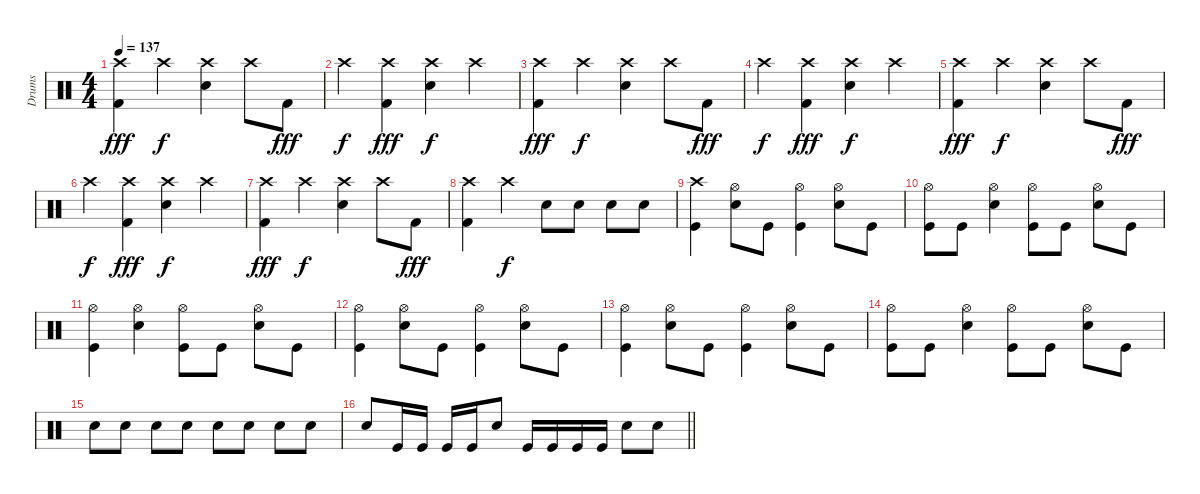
\track ("Drums" "Drums") {instrument percussion}
\staff {score}
\articulation defaults
\ts (4 4)
\tempo 137
\clef neutral
\ks c
("Crash high (hit)" "Kick (hit) 2").4{dy fff} "Crash high (hit)".4{dy f} ("Crash high (hit)" "Electric Snare (hit)").4 "Crash high (hit)".8 "Kick (hit) 2".8{dy fff} |
"Crash high (hit)".4{dy f} ("Crash high (hit)" "Kick (hit) 2").4{dy fff} ("Crash high (hit)" "Electric Snare (hit)").4{dy f} "Crash high (hit)".4 |
("Crash high (hit)" "Kick (hit) 2").4{dy fff} "Crash high (hit)".4{dy f} ("Crash high (hit)" "Electric Snare (hit)").4 "Crash high (hit)".8 "Kick (hit) 2".8{dy fff} |
"Crash high (hit)".4{dy f} ("Crash high (hit)" "Kick (hit) 2").4{dy fff} ("Crash high (hit)" "Electric Snare (hit)").4{dy f} "Crash high (hit)".4 |
("Crash high (hit)" "Kick (hit) 2").4{dy fff} "Crash high (hit)".4{dy f} ("Crash high (hit)" "Electric Snare (hit)").4 "Crash high (hit)".8 "Kick (hit) 2".8{dy fff} |
"Crash high (hit)".4{dy f} ("Crash high (hit)" "Kick (hit) 2").4{dy fff} ("Crash high (hit)" "Electric Snare (hit)").4{dy f} "Crash high (hit)".4 |
("Crash high (hit)" "Kick (hit) 2").4{dy fff} "Crash high (hit)".4{dy f} ("Crash high (hit)" "Electric Snare (hit)").4 "Crash high (hit)".8 "Kick (hit) 2".8{dy fff} |
("Crash high (hit)" "Kick (hit) 2").4 "Crash high (hit)".4{dy f} "Electric Snare (hit)".8 "Electric Snare (hit)".8 "Electric Snare (hit)".8 "Electric Snare (hit)".8 |
("Crash high (hit)" "Kick (hit)").4 ("Hi-Hat (open)" "Electric Snare (hit)").8 "Kick (hit)".8 ("Hi-Hat (open)" "Kick (hit)").4 ("Hi-Hat (open)" "Electric Snare (hit)").8 "Kick (hit)".8 |
("Hi-Hat (open)" "Kick (hit)").8 "Kick (hit)".8 ("Hi-Hat (open)" "Electric Snare (hit)").4 ("Hi-Hat (open)" "Kick (hit)").8 "Kick (hit)".8 ("Hi-Hat (open)" "Electric Snare (hit)").8 "Kick (hit)".8 |
("Hi-Hat (open)" "Kick (hit)").4 ("Hi-Hat (open)" "Electric Snare (hit)").4 ("Hi-Hat (open)" "Kick (hit)").8 "Kick (hit)".8 ("Hi-Hat (open)" "Electric Snare (hit)").8 "Kick (hit)".8 |
("Hi-Hat (open)" "Kick (hit)").4 ("Hi-Hat (open)" "Electric Snare (hit)").8 "Kick (hit)".8 ("Hi-Hat (open)" "Kick (hit)").4 ("Hi-Hat (open)" "Electric Snare (hit)").8 "Kick (hit)".8 |
("Hi-Hat (open)" "Kick (hit)").4 ("Hi-Hat (open)" "Electric Snare (hit)").8 "Kick (hit)".8 ("Hi-Hat (open)" "Kick (hit)").4 ("Hi-Hat (open)" "Electric Snare (hit)").8 "Kick (hit)".8 |
("Hi-Hat (open)" "Kick (hit)").8 "Kick (hit)".8 ("Hi-Hat (open)" "Electric Snare (hit)").4 ("Hi-Hat (open)" "Kick (hit)").8 "Kick (hit)".8 ("Hi-Hat (open)" "Electric Snare (hit)").8 "Kick (hit)".8 |
"Electric Snare (hit)".8 "Electric Snare (hit)".8 "Electric Snare (hit)".8 "Electric Snare (hit)".8 "Electric Snare (hit)".8 "Electric Snare (hit)".8 "Electric Snare (hit)".8 "Electric Snare (hit)".8 |
\barLineRight lightlight "Electric Snare (hit)".8 "Kick (hit)".16 "Kick (hit)".16 "Kick (hit)".16 "Kick (hit)".16 "Electric Snare (hit)".8 "Kick (hit)".16 "Kick (hit)".16 "Kick (hit)".16 "Kick (hit)".16 "Electric Snare (hit)".8 "Electric Snare (hit)".8
